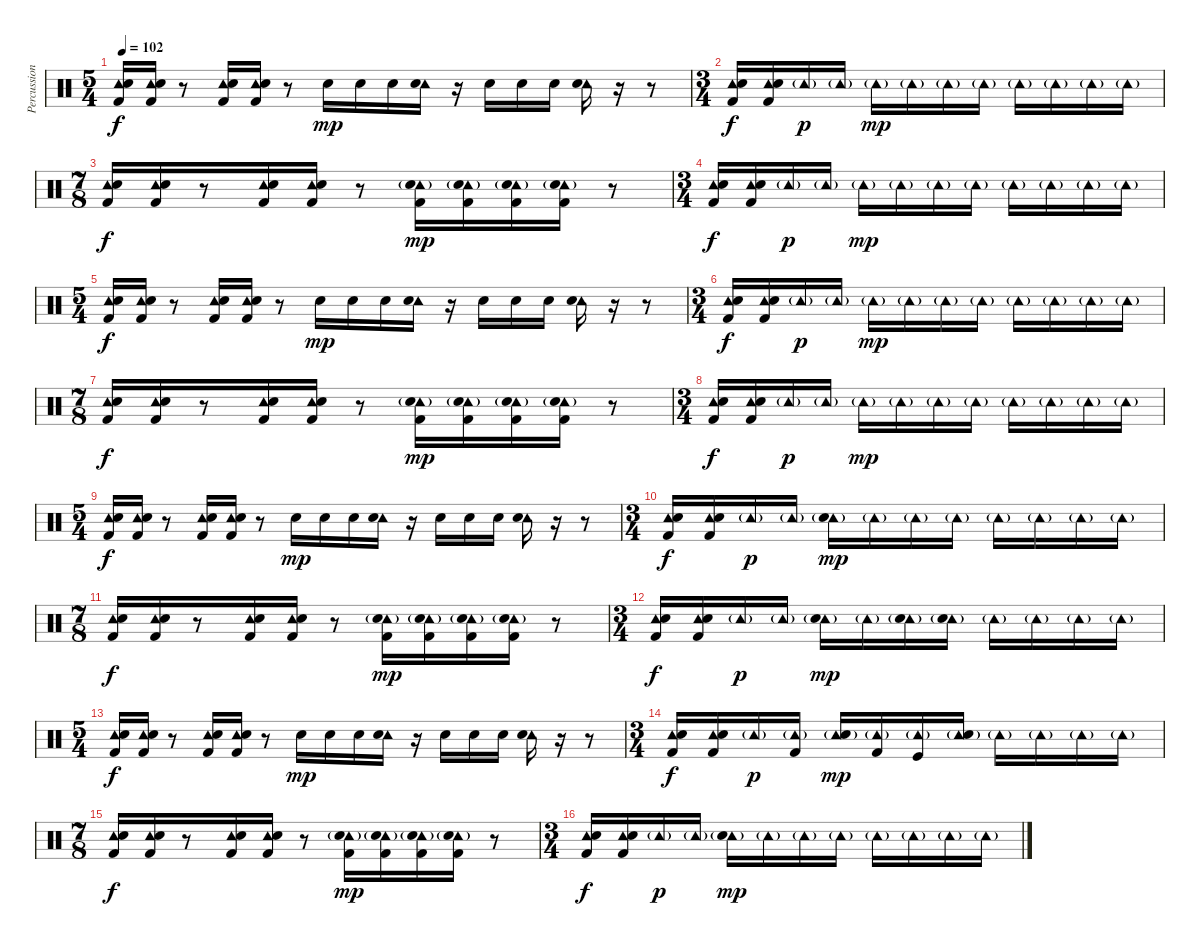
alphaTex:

\track ("Percussion" "Percussion") {instrument percussion}
\staff {score}
\articulation defaults
\ts (5 4)
\tempo 102
\clef neutral
\ks c
("Tambourine (hit)" "Snare (hit) 2" "Kick (hit) 2").16{dy f} ("Tambourine (hit)" "Snare (hit) 2" "Kick (hit) 2").16 r.8 ("Tambourine (hit)" "Snare (hit) 2" "Kick (hit) 2").16 ("Tambourine (hit)" "Snare (hit) 2" "Kick (hit) 2").16 r.8 "Electric Snare (hit)".16{dy mp} "Electric Snare (hit)".16 "Electric Snare (hit)".16 ("Tambourine (hit)" "Electric Snare (hit)").16 r.16 "Electric Snare (hit)".16 "Electric Snare (hit)".16 "Electric Snare (hit)".16 ("Tambourine (hit)" "Electric Snare (hit)").16 r.16 r.8 |
\ts (3 4)
("Tambourine (hit)" "Snare (hit) 2" "Kick (hit) 2").16{dy f} ("Tambourine (hit)" "Snare (hit) 2" "Kick (hit) 2").16 "Tambourine (hit)"{g}.16{dy p} "Tambourine (hit)"{g}.16 "Tambourine (hit)"{g}.16{dy mp} "Tambourine (hit)"{g}.16 "Tambourine (hit)"{g}.16 "Tambourine (hit)"{g}.16 "Tambourine (hit)"{g}.16 "Tambourine (hit)"{g}.16 "Tambourine (hit)"{g}.16 "Tambourine (hit)"{g}.16 |
\ts (7 8)
("Tambourine (hit)" "Snare (hit) 2" "Kick (hit) 2").16{dy f} ("Tambourine (hit)" "Snare (hit) 2" "Kick (hit) 2").16 r.8 ("Tambourine (hit)" "Snare (hit) 2" "Kick (hit) 2").16 ("Tambourine (hit)" "Snare (hit) 2" "Kick (hit) 2").16 r.8 ("Tambourine (hit)"{g} "Electric Snare (hit)"{g} "Kick (hit) 2").16{dy mp} ("Tambourine (hit)"{g} "Electric Snare (hit)"{g} "Kick (hit) 2").16 ("Tambourine (hit)"{g} "Electric Snare (hit)"{g} "Kick (hit) 2").16 ("Tambourine (hit)"{g} "Electric Snare (hit)"{g} "Kick (hit) 2").16 r.8 |
\ts (3 4)
("Tambourine (hit)" "Snare (hit) 2" "Kick (hit) 2").16{dy f} ("Tambourine (hit)" "Snare (hit) 2" "Kick (hit) 2").16 "Tambourine (hit)"{g}.16{dy p} "Tambourine (hit)"{g}.16 "Tambourine (hit)"{g}.16{dy mp} "Tambourine (hit)"{g}.16 "Tambourine (hit)"{g}.16 "Tambourine (hit)"{g}.16 "Tambourine (hit)"{g}.16 "Tambourine (hit)"{g}.16 "Tambourine (hit)"{g}.16 "Tambourine (hit)"{g}.16 |
\ts (5 4)
("Tambourine (hit)" "Snare (hit) 2" "Kick (hit) 2").16{dy f} ("Tambourine (hit)" "Snare (hit) 2" "Kick (hit) 2").16 r.8 ("Tambourine (hit)" "Snare (hit) 2" "Kick (hit) 2").16 ("Tambourine (hit)" "Snare (hit) 2" "Kick (hit) 2").16 r.8 "Electric Snare (hit)".16{dy mp} "Electric Snare (hit)".16 "Electric Snare (hit)".16 ("Tambourine (hit)" "Electric Snare (hit)").16 r.16 "Electric Snare (hit)".16 "Electric Snare (hit)".16 "Electric Snare (hit)".16 ("Tambourine (hit)" "Electric Snare (hit)").16 r.16 r.8 |
\ts (3 4)
("Tambourine (hit)" "Snare (hit) 2" "Kick (hit) 2").16{dy f} ("Tambourine (hit)" "Snare (hit) 2" "Kick (hit) 2").16 "Tambourine (hit)"{g}.16{dy p} "Tambourine (hit)"{g}.16 "Tambourine (hit)"{g}.16{dy mp} "Tambourine (hit)"{g}.16 "Tambourine (hit)"{g}.16 "Tambourine (hit)"{g}.16 "Tambourine (hit)"{g}.16 "Tambourine (hit)"{g}.16 "Tambourine (hit)"{g}.16 "Tambourine (hit)"{g}.16 |
\ts (7 8)
("Tambourine (hit)" "Snare (hit) 2" "Kick (hit) 2").16{dy f} ("Tambourine (hit)" "Snare (hit) 2" "Kick (hit) 2").16 r.8 ("Tambourine (hit)" "Snare (hit) 2" "Kick (hit) 2").16 ("Tambourine (hit)" "Snare (hit) 2" "Kick (hit) 2").16 r.8 ("Tambourine (hit)"{g} "Electric Snare (hit)"{g} "Kick (hit) 2").16{dy mp} ("Tambourine (hit)"{g} "Electric Snare (hit)"{g} "Kick (hit) 2").16 ("Tambourine (hit)"{g} "Electric Snare (hit)"{g} "Kick (hit) 2").16 ("Tambourine (hit)"{g} "Electric Snare (hit)"{g} "Kick (hit) 2").16 r.8 |
\ts (3 4)
("Tambourine (hit)" "Snare (hit) 2" "Kick (hit) 2").16{dy f} ("Tambourine (hit)" "Snare (hit) 2" "Kick (hit) 2").16 "Tambourine (hit)"{g}.16{dy p} "Tambourine (hit)"{g}.16 "Tambourine (hit)"{g}.16{dy mp} "Tambourine (hit)"{g}.16 "Tambourine (hit)"{g}.16 "Tambourine (hit)"{g}.16 "Tambourine (hit)"{g}.16 "Tambourine (hit)"{g}.16 "Tambourine (hit)"{g}.16 "Tambourine (hit)"{g}.16 |
\ts (5 4)
("Tambourine (hit)" "Snare (hit) 2" "Kick (hit) 2").16{dy f} ("Tambourine (hit)" "Snare (hit) 2" "Kick (hit) 2").16 r.8 ("Tambourine (hit)" "Snare (hit) 2" "Kick (hit) 2").16 ("Tambourine (hit)" "Snare (hit) 2" "Kick (hit) 2").16 r.8 "Electric Snare (hit)".16{dy mp} "Electric Snare (hit)".16 "Electric Snare (hit)".16 ("Tambourine (hit)" "Electric Snare (hit)").16 r.16 "Electric Snare (hit)".16 "Electric Snare (hit)".16 "Electric Snare (hit)".16 ("Tambourine (hit)" "Electric Snare (hit)").16 r.16 r.8 |
\ts (3 4)
("Tambourine (hit)" "Snare (hit) 2" "Kick (hit) 2").16{dy f} ("Tambourine (hit)" "Snare (hit) 2" "Kick (hit) 2").16 "Tambourine (hit)"{g}.16{dy p} "Tambourine (hit)"{g}.16 ("Tambourine (hit)"{g} "Electric Snare (hit)").16{dy mp} "Tambourine (hit)"{g}.16 "Tambourine (hit)"{g}.16 "Tambourine (hit)"{g}.16 "Tambourine (hit)"{g}.16 "Tambourine (hit)"{g}.16 "Tambourine (hit)"{g}.16 "Tambourine (hit)"{g}.16 |
\ts (7 8)
("Tambourine (hit)" "Snare (hit) 2" "Kick (hit) 2").16{dy f} ("Tambourine (hit)" "Snare (hit) 2" "Kick (hit) 2").16 r.8 ("Tambourine (hit)" "Snare (hit) 2" "Kick (hit) 2").16 ("Tambourine (hit)" "Snare (hit) 2" "Kick (hit) 2").16 r.8 ("Tambourine (hit)"{g} "Electric Snare (hit)"{g} "Kick (hit) 2").16{dy mp} ("Tambourine (hit)"{g} "Electric Snare (hit)"{g} "Kick (hit) 2").16 ("Tambourine (hit)"{g} "Electric Snare (hit)"{g} "Kick (hit) 2").16 ("Tambourine (hit)"{g} "Electric Snare (hit)"{g} "Kick (hit) 2").16 r.8 |
\ts (3 4)
("Tambourine (hit)" "Snare (hit) 2" "Kick (hit) 2").16{dy f} ("Tambourine (hit)" "Snare (hit) 2" "Kick (hit) 2").16 "Tambourine (hit)"{g}.16{dy p} "Tambourine (hit)"{g}.16 ("Tambourine (hit)"{g} "Electric Snare (hit)").16{dy mp} "Tambourine (hit)"{g}.16 ("Tambourine (hit)"{g} "Snare (hit) 2").16 ("Tambourine (hit)"{g} "Electric Snare (hit)").16 "Tambourine (hit)"{g}.16 "Tambourine (hit)"{g}.16 "Tambourine (hit)"{g}.16 "Tambourine (hit)"{g}.16 |
\ts (5 4)
("Tambourine (hit)" "Snare (hit) 2" "Kick (hit) 2").16{dy f} ("Tambourine (hit)" "Snare (hit) 2" "Kick (hit) 2").16 r.8 ("Tambourine (hit)" "Snare (hit) 2" "Kick (hit) 2").16 ("Tambourine (hit)" "Snare (hit) 2" "Kick (hit) 2").16 r.8 "Electric Snare (hit)".16{dy mp} "Electric Snare (hit)".16 "Electric Snare (hit)".16 ("Tambourine (hit)" "Electric Snare (hit)").16 r.16 "Electric Snare (hit)".16 "Electric Snare (hit)".16 "Electric Snare (hit)".16 ("Tambourine (hit)" "Electric Snare (hit)").16 r.16 r.8 |
\ts (3 4)
("Tambourine (hit)" "Snare (hit) 2" "Kick (hit) 2").16{dy f} ("Tambourine (hit)" "Snare (hit) 2" "Kick (hit) 2").16 "Tambourine (hit)"{g}.16{dy p} ("Tambourine (hit)"{g} "Kick (hit) 2").16 ("Tambourine (hit)"{g} "Electric Snare (hit)").16{dy mp} ("Tambourine (hit)"{g} "Kick (hit) 2").16 ("Tambourine (hit)"{g} "Kick (hit)").16 ("Tambourine (hit)"{g} "Electric Snare (hit)").16 "Tambourine (hit)"{g}.16 "Tambourine (hit)"{g}.16 "Tambourine (hit)"{g}.16 "Tambourine (hit)"{g}.16 |
\ts (7 8)
("Tambourine (hit)" "Snare (hit) 2" "Kick (hit) 2").16{dy f} ("Tambourine (hit)" "Snare (hit) 2" "Kick (hit) 2").16 r.8 ("Tambourine (hit)" "Snare (hit) 2" "Kick (hit) 2").16 ("Tambourine (hit)" "Snare (hit) 2" "Kick (hit) 2").16 r.8 ("Tambourine (hit)"{g} "Electric Snare (hit)"{g} "Kick (hit) 2").16{dy mp} ("Tambourine (hit)"{g} "Electric Snare (hit)"{g} "Kick (hit) 2").16 ("Tambourine (hit)"{g} "Electric Snare (hit)"{g} "Kick (hit) 2").16 ("Tambourine (hit)"{g} "Electric Snare (hit)"{g} "Kick (hit) 2").16 r.8 |
\ts (3 4)
("Tambourine (hit)" "Snare (hit) 2" "Kick (hit) 2").16{dy f} ("Tambourine (hit)" "Snare (hit) 2" "Kick (hit) 2").16 "Tambourine (hit)"{g}.16{dy p} "Tambourine (hit)"{g}.16 ("Tambourine (hit)"{g} "Electric Snare (hit)").16{dy mp} "Tambourine (hit)"{g}.16 "Tambourine (hit)"{g}.16 "Tambourine (hit)"{g}.16 "Tambourine (hit)"{g}.16 "Tambourine (hit)"{g}.16 "Tambourine (hit)"{g}.16 "Tambourine (hit)"{g}.16
